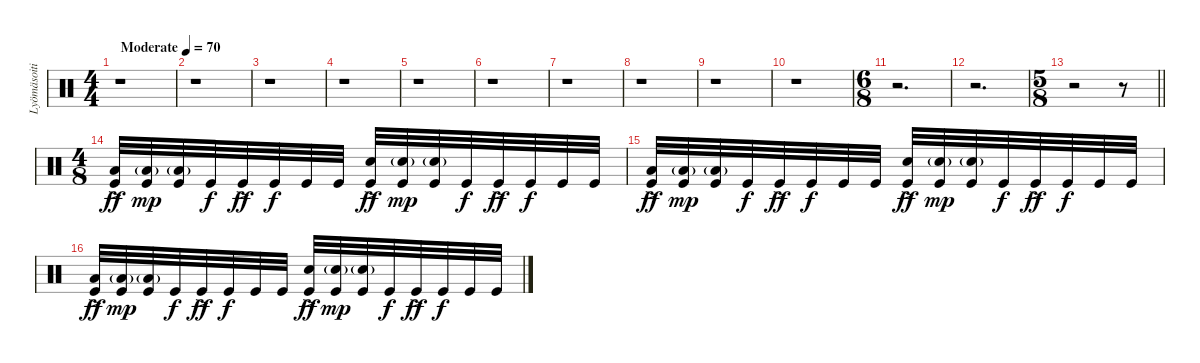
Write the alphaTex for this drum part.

\track ("Lyömäsoitin" "Lyömäsoiti") {instrument percussion}
\staff {score}
\articulation defaults
\ts (4 4)
\tempo (70 "Moderate")
\clef neutral
\ks c
r.1{dy ff} |
r.1 |
r.1 |
r.1 |
r.1 |
r.1 |
r.1 |
r.1 |
r.1 |
r.1 |
\ts (6 8)
r.2{d} |
r.2{d} |
\ts (5 8)
\barLineRight lightlight
r.2 r.8 |
\ts (4 8)
("Low Floor Tom (hit)" "Kick (hit)"{ac}).32 ("Low Floor Tom (hit)"{g} "Kick (hit)").32{dy mp} ("Low Floor Tom (hit)"{g} "Kick (hit)").32 "Kick (hit)".32{dy f} "Kick (hit)"{ac}.32{dy ff} "Kick (hit)".32{dy f} "Kick (hit)".32 "Kick (hit)".32 ("Kick (hit)"{ac} "Snare (hit) 2").32{dy ff} ("Kick (hit)" "Snare (hit) 2"{g}).32{dy mp} ("Kick (hit)" "Snare (hit) 2"{g}).32 "Kick (hit)".32{dy f} "Kick (hit)"{ac}.32{dy ff} "Kick (hit)".32{dy f} "Kick (hit)".32 "Kick (hit)".32 |
("Low Floor Tom (hit)" "Kick (hit)"{ac}).32{dy ff} ("Low Floor Tom (hit)"{g} "Kick (hit)").32{dy mp} ("Low Floor Tom (hit)"{g} "Kick (hit)").32 "Kick (hit)".32{dy f} "Kick (hit)"{ac}.32{dy ff} "Kick (hit)".32{dy f} "Kick (hit)".32 "Kick (hit)".32 ("Kick (hit)"{ac} "Snare (hit) 2").32{dy ff} ("Kick (hit)" "Snare (hit) 2"{g}).32{dy mp} ("Kick (hit)" "Snare (hit) 2"{g}).32 "Kick (hit)".32{dy f} "Kick (hit)"{ac}.32{dy ff} "Kick (hit)".32{dy f} "Kick (hit)".32 "Kick (hit)".32 |
("Low Floor Tom (hit)" "Kick (hit)"{ac}).32{dy ff} ("Low Floor Tom (hit)"{g} "Kick (hit)").32{dy mp} ("Low Floor Tom (hit)"{g} "Kick (hit)").32 "Kick (hit)".32{dy f} "Kick (hit)"{ac}.32{dy ff} "Kick (hit)".32{dy f} "Kick (hit)".32 "Kick (hit)".32 ("Kick (hit)"{ac} "Snare (hit) 2").32{dy ff} ("Kick (hit)" "Snare (hit) 2"{g}).32{dy mp} ("Kick (hit)" "Snare (hit) 2"{g}).32 "Kick (hit)".32{dy f} "Kick (hit)"{ac}.32{dy ff} "Kick (hit)".32{dy f} "Kick (hit)".32 "Kick (hit)".32
